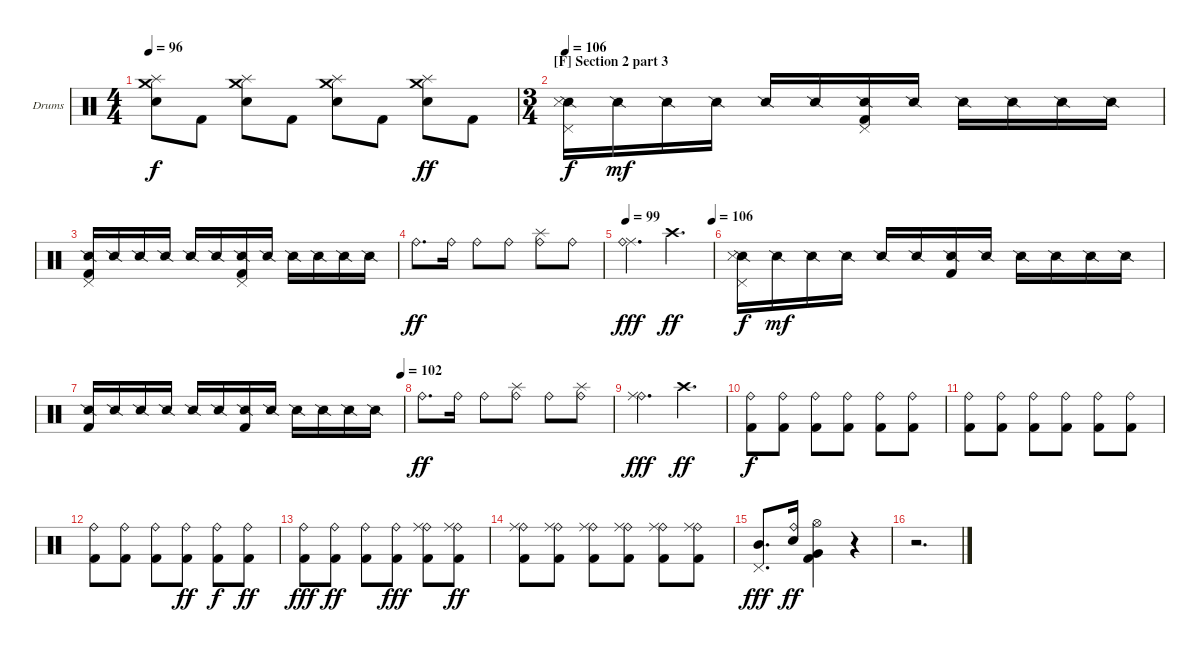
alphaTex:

\defaultSystemsLayout 4
\bracketExtendMode nobrackets
\firstSystemTrackNameOrientation horizontal
\otherSystemsTrackNameOrientation horizontal
\track ("Drums" "Drums") {instrument percussion}
\staff
\articulation defaults
\ts (4 4)
\tempo 96
\clef neutral
\ks c
("Snare (hit) 2" "Crash medium (hit)" "Splash (hit)").8{dy f} "Kick (hit) 2".8 ("Snare (hit) 2" "Crash medium (hit)" "Splash (hit)").8 "Kick (hit) 2".8 ("Snare (hit) 2" "Crash medium (hit)" "Splash (hit)").8 "Kick (hit) 2".8 ("Snare (hit) 2" "Crash medium (hit)" "Splash (hit)").8{dy ff} "Kick (hit) 2".8 |
\ts (3 4)
\beaming (8 2 2 2)
\section ("F" "Section 2 part 3")
\tempo 106
("Snare (side stick) 2" "Pedal Hi-Hat (hit)" "Metronome (hit)").16{dy f} "Snare (side stick) 2".16{dy mf} "Snare (side stick) 2".16 "Snare (side stick) 2".16 "Snare (side stick) 2".16 "Snare (side stick) 2".16 ("Snare (side stick) 2" "Kick (hit) 2" "Pedal Hi-Hat (hit)").16 "Snare (side stick) 2".16 "Snare (side stick) 2".16 "Snare (side stick) 2".16 "Snare (side stick) 2".16 "Snare (side stick) 2".16 |
("Snare (side stick) 2" "Kick (hit) 2" "Pedal Hi-Hat (hit)").16 "Snare (side stick) 2".16 "Snare (side stick) 2".16 "Snare (side stick) 2".16 "Snare (side stick) 2".16 "Snare (side stick) 2".16 ("Snare (side stick) 2" "Kick (hit) 2" "Pedal Hi-Hat (hit)").16 "Snare (side stick) 2".16 "Snare (side stick) 2".16 "Snare (side stick) 2".16 "Snare (side stick) 2".16 "Snare (side stick) 2".16 |
"Ride (bell)".8{d dy ff} "Ride (bell)".16 "Ride (bell)".8 "Ride (bell)".8 ("Ride (bell)" "Splash (hit)").8 "Ride (bell)".8 |
\tempo 99
\tempo (106 0.99375)
("Ride (middle)" "Ride (bell)").4{d dy fff} "Crash high (hit)".4{d dy ff} |
("Snare (side stick) 2" "Metronome (hit)" "Pedal Hi-Hat (hit)").16{dy f} "Snare (side stick) 2".16{dy mf} "Snare (side stick) 2".16 "Snare (side stick) 2".16 "Snare (side stick) 2".16 "Snare (side stick) 2".16 ("Snare (side stick) 2" "Kick (hit) 2").16 "Snare (side stick) 2".16 "Snare (side stick) 2".16 "Snare (side stick) 2".16 "Snare (side stick) 2".16 "Snare (side stick) 2".16 |
\tempo (102 0.99375)
("Snare (side stick) 2" "Kick (hit) 2").16 "Snare (side stick) 2".16 "Snare (side stick) 2".16 "Snare (side stick) 2".16 "Snare (side stick) 2".16 "Snare (side stick) 2".16 ("Snare (side stick) 2" "Kick (hit) 2").16 "Snare (side stick) 2".16 "Snare (side stick) 2".16 "Snare (side stick) 2".16 "Snare (side stick) 2".16 "Snare (side stick) 2".16 |
"Ride (bell)".8{d dy ff} "Ride (bell)".16 "Ride (bell)".8 ("Ride (bell)" "Splash (hit)").8 "Ride (bell)".8 ("Ride (bell)" "Splash (hit)").8 |
("Ride (bell)" "Ride (middle)").4{d dy fff} "Crash high (hit)".4{d dy ff} |
("Kick (hit) 2" "Ride (bell)").8{dy f} ("Ride (bell)" "Kick (hit) 2").8 ("Ride (bell)" "Kick (hit) 2").8 ("Ride (bell)" "Kick (hit) 2").8 ("Ride (bell)" "Kick (hit) 2").8 ("Ride (bell)" "Kick (hit) 2").8 |
("Kick (hit) 2" "Ride (bell)").8 ("Ride (bell)" "Kick (hit) 2").8 ("Ride (bell)" "Kick (hit) 2").8 ("Ride (bell)" "Kick (hit) 2").8 ("Ride (bell)" "Kick (hit) 2").8 ("Ride (bell)" "Kick (hit) 2").8 |
("Kick (hit) 2" "Ride (bell)").8 ("Ride (bell)" "Kick (hit) 2").8 ("Ride (bell)" "Kick (hit) 2").8 ("Ride (bell)" "Kick (hit) 2").8{dy ff} ("Ride (bell)" "Kick (hit) 2").8{dy f} ("Ride (bell)" "Kick (hit) 2").8{dy ff} |
("Kick (hit) 2" "Ride (bell)").8{dy fff} ("Ride (bell)" "Kick (hit) 2").8{dy ff} ("Ride (bell)" "Kick (hit) 2").8 ("Ride (bell)" "Kick (hit) 2").8{dy fff} ("Ride (bell)" "Kick (hit) 2" "Ride (middle)").8 ("Ride (bell)" "Kick (hit) 2" "Ride (middle)").8{dy ff} |
("Kick (hit) 2" "Ride (bell)" "Ride (middle)").8 ("Ride (bell)" "Kick (hit) 2" "Ride (middle)").8 ("Ride (bell)" "Kick (hit) 2" "Ride (middle)").8 ("Ride (bell)" "Kick (hit) 2" "Ride (middle)").8 ("Ride (bell)" "Kick (hit) 2" "Ride (middle)").8 ("Ride (bell)" "Kick (hit) 2" "Ride (middle)").8 |
("Mid Tom (hit)" "Pedal Hi-Hat (hit)").8{d dy fff} ("Snare (hit) 2" "Ride (bell)").16{dy ff} ("Kick (hit) 2" "Very Low Tom (hit)" "Hi-Hat (open)").4 r.4 |
r.2{d}
